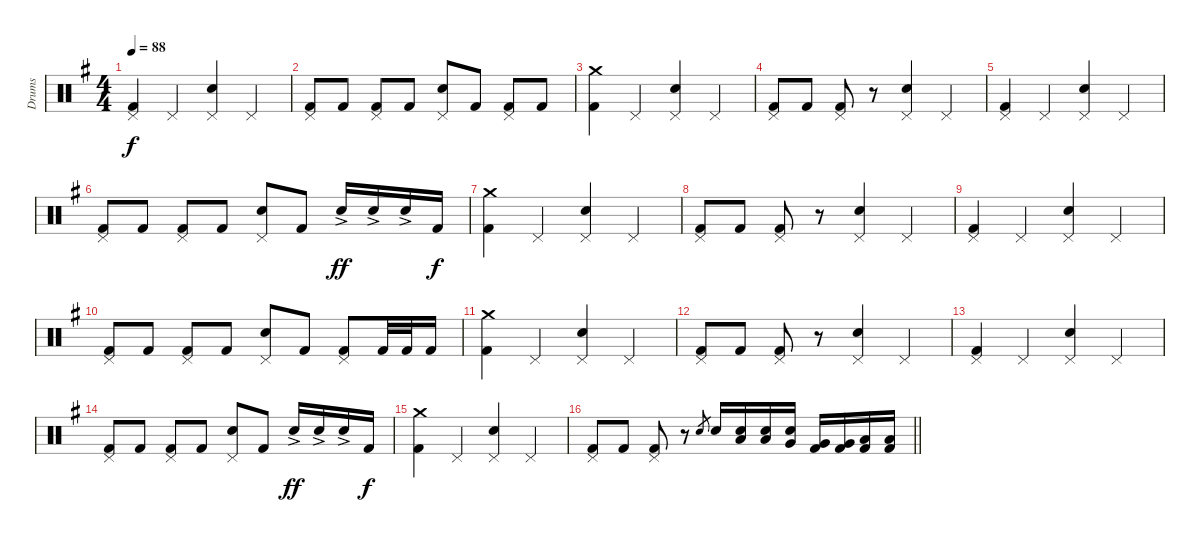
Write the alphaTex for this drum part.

\track ("Drums" "Drums") {instrument percussion}
\staff {score}
\articulation defaults
\ts (4 4)
\tempo 88
\clef neutral
\ks g
("Pedal Hi-Hat (hit)" "Kick (hit) 2").4{dy f} "Pedal Hi-Hat (hit)".4 ("Pedal Hi-Hat (hit)" "Electric Snare (hit)").4 "Pedal Hi-Hat (hit)".4 |
("Pedal Hi-Hat (hit)" "Kick (hit) 2").8 "Kick (hit) 2".8 ("Pedal Hi-Hat (hit)" "Kick (hit) 2").8 "Kick (hit) 2".8 ("Pedal Hi-Hat (hit)" "Electric Snare (hit)").8 "Kick (hit) 2".8 ("Pedal Hi-Hat (hit)" "Kick (hit) 2").8 "Kick (hit) 2".8 |
("Crash medium (hit)" "Kick (hit) 2").4 "Pedal Hi-Hat (hit)".4 ("Pedal Hi-Hat (hit)" "Electric Snare (hit)").4 "Pedal Hi-Hat (hit)".4 |
("Pedal Hi-Hat (hit)" "Kick (hit) 2").8 "Kick (hit) 2".8 ("Pedal Hi-Hat (hit)" "Kick (hit) 2").8 r.8 ("Pedal Hi-Hat (hit)" "Electric Snare (hit)").4 "Pedal Hi-Hat (hit)".4 |
("Pedal Hi-Hat (hit)" "Kick (hit) 2").4 "Pedal Hi-Hat (hit)".4 ("Pedal Hi-Hat (hit)" "Electric Snare (hit)").4 "Pedal Hi-Hat (hit)".4 |
("Pedal Hi-Hat (hit)" "Kick (hit) 2").8 "Kick (hit) 2".8 ("Pedal Hi-Hat (hit)" "Kick (hit) 2").8 "Kick (hit) 2".8 ("Pedal Hi-Hat (hit)" "Electric Snare (hit)").8 "Kick (hit) 2".8 "Electric Snare (hit)"{ac}.16{dy ff} "Electric Snare (hit)"{ac}.16 "Electric Snare (hit)"{ac}.16 "Kick (hit) 2".16{dy f} |
("Crash medium (hit)" "Kick (hit) 2").4 "Pedal Hi-Hat (hit)".4 ("Pedal Hi-Hat (hit)" "Electric Snare (hit)").4 "Pedal Hi-Hat (hit)".4 |
("Pedal Hi-Hat (hit)" "Kick (hit) 2").8 "Kick (hit) 2".8 ("Pedal Hi-Hat (hit)" "Kick (hit) 2").8 r.8 ("Pedal Hi-Hat (hit)" "Electric Snare (hit)").4 "Pedal Hi-Hat (hit)".4 |
("Pedal Hi-Hat (hit)" "Kick (hit) 2").4 "Pedal Hi-Hat (hit)".4 ("Pedal Hi-Hat (hit)" "Electric Snare (hit)").4 "Pedal Hi-Hat (hit)".4 |
("Pedal Hi-Hat (hit)" "Kick (hit) 2").8 "Kick (hit) 2".8 ("Pedal Hi-Hat (hit)" "Kick (hit) 2").8 "Kick (hit) 2".8 ("Pedal Hi-Hat (hit)" "Electric Snare (hit)").8 "Kick (hit) 2".8 ("Pedal Hi-Hat (hit)" "Kick (hit) 2").8 "Kick (hit) 2".32 "Kick (hit) 2".32 "Kick (hit) 2".16 |
("Crash medium (hit)" "Kick (hit) 2").4 "Pedal Hi-Hat (hit)".4 ("Pedal Hi-Hat (hit)" "Electric Snare (hit)").4 "Pedal Hi-Hat (hit)".4 |
("Pedal Hi-Hat (hit)" "Kick (hit) 2").8 "Kick (hit) 2".8 ("Pedal Hi-Hat (hit)" "Kick (hit) 2").8 r.8 ("Pedal Hi-Hat (hit)" "Electric Snare (hit)").4 "Pedal Hi-Hat (hit)".4 |
("Pedal Hi-Hat (hit)" "Kick (hit) 2").4 "Pedal Hi-Hat (hit)".4 ("Pedal Hi-Hat (hit)" "Electric Snare (hit)").4 "Pedal Hi-Hat (hit)".4 |
("Pedal Hi-Hat (hit)" "Kick (hit) 2").8 "Kick (hit) 2".8 ("Pedal Hi-Hat (hit)" "Kick (hit) 2").8 "Kick (hit) 2".8 ("Pedal Hi-Hat (hit)" "Electric Snare (hit)").8 "Kick (hit) 2".8 "Electric Snare (hit)"{ac}.16{dy ff} "Electric Snare (hit)"{ac}.16 "Electric Snare (hit)"{ac}.16 "Kick (hit) 2".16{dy f} |
("Crash medium (hit)" "Kick (hit) 2").4 "Pedal Hi-Hat (hit)".4 ("Pedal Hi-Hat (hit)" "Electric Snare (hit)").4 "Pedal Hi-Hat (hit)".4 |
\barLineRight lightlight
("Pedal Hi-Hat (hit)" "Kick (hit) 2").8 "Kick (hit) 2".8 ("Pedal Hi-Hat (hit)" "Kick (hit) 2").8 r.8 "Electric Snare (hit)".8{gr} "Electric Snare (hit)".16 ("Low Tom (hit)" "Electric Snare (hit)").16 ("Low Tom (hit)" "Electric Snare (hit)").16 ("Very Low Tom (hit)" "Electric Snare (hit)").16 ("Very Low Tom (hit)" "Kick (hit) 2").16 ("Very Low Tom (hit)" "Kick (hit) 2").16 ("Low Floor Tom (hit)" "Kick (hit) 2").16 ("Low Floor Tom (hit)" "Kick (hit) 2").16
